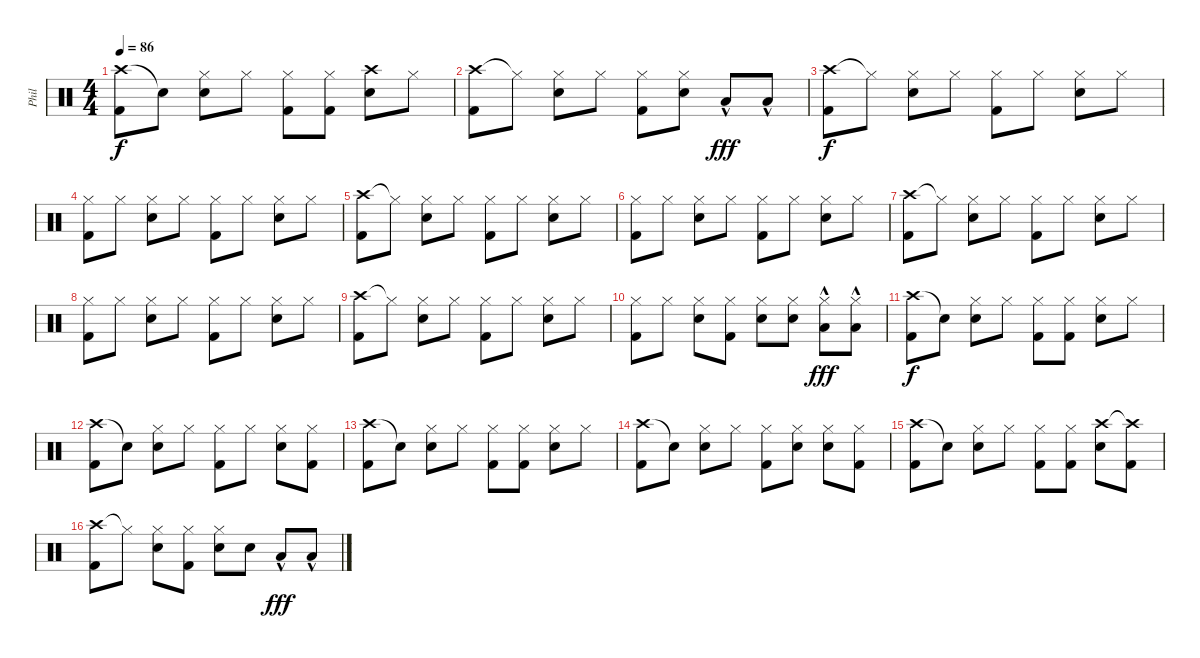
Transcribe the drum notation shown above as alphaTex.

\track ("Phil" "Phil") {instrument percussion}
\staff {score}
\articulation defaults
\ts (4 4)
\tempo 86
\clef neutral
\ks c
("Crash high (hit)" "Kick (hit) 2").8{dy f} "Snare (hit)"{t}.8 ("Hi-Hat (closed)" "Snare (hit) 2").8 "Hi-Hat (closed)".8 ("Hi-Hat (closed)" "Kick (hit) 2").8 ("Hi-Hat (closed)" "Kick (hit) 2").8 ("Crash high (hit)" "Snare (hit) 2").8 "Hi-Hat (closed)".8 |
("Crash high (hit)" "Kick (hit) 2").8 "Hi-Hat (closed)"{t}.8 ("Hi-Hat (closed)" "Snare (hit) 2").8 "Hi-Hat (closed)".8 ("Hi-Hat (closed)" "Kick (hit) 2").8 ("Hi-Hat (closed)" "Snare (hit) 2").8 "Low Floor Tom (hit)"{hac}.8{dy fff} "Low Floor Tom (hit)"{hac}.8 |
("Crash high (hit)" "Kick (hit) 2").8{dy f} "Hi-Hat (closed)"{t}.8 ("Hi-Hat (closed)" "Snare (hit) 2").8 "Hi-Hat (closed)".8 ("Hi-Hat (closed)" "Kick (hit) 2").8 "Hi-Hat (closed)".8 ("Hi-Hat (closed)" "Snare (hit) 2").8 "Hi-Hat (closed)".8 |
("Hi-Hat (closed)" "Kick (hit) 2").8 "Hi-Hat (closed)".8 ("Hi-Hat (closed)" "Snare (hit) 2").8 "Hi-Hat (closed)".8 ("Hi-Hat (closed)" "Kick (hit) 2").8 "Hi-Hat (closed)".8 ("Hi-Hat (closed)" "Snare (hit) 2").8 "Hi-Hat (closed)".8 |
("Crash high (hit)" "Kick (hit) 2").8 "Hi-Hat (closed)"{t}.8 ("Hi-Hat (closed)" "Snare (hit) 2").8 "Hi-Hat (closed)".8 ("Hi-Hat (closed)" "Kick (hit) 2").8 "Hi-Hat (closed)".8 ("Hi-Hat (closed)" "Snare (hit) 2").8 "Hi-Hat (closed)".8 |
("Hi-Hat (closed)" "Kick (hit) 2").8 "Hi-Hat (closed)".8 ("Hi-Hat (closed)" "Snare (hit) 2").8 "Hi-Hat (closed)".8 ("Hi-Hat (closed)" "Kick (hit) 2").8 "Hi-Hat (closed)".8 ("Hi-Hat (closed)" "Snare (hit) 2").8 "Hi-Hat (closed)".8 |
("Crash high (hit)" "Kick (hit) 2").8 "Hi-Hat (closed)"{t}.8 ("Hi-Hat (closed)" "Snare (hit) 2").8 "Hi-Hat (closed)".8 ("Hi-Hat (closed)" "Kick (hit) 2").8 "Hi-Hat (closed)".8 ("Hi-Hat (closed)" "Snare (hit) 2").8 "Hi-Hat (closed)".8 |
("Hi-Hat (closed)" "Kick (hit) 2").8 "Hi-Hat (closed)".8 ("Hi-Hat (closed)" "Snare (hit) 2").8 "Hi-Hat (closed)".8 ("Hi-Hat (closed)" "Kick (hit) 2").8 "Hi-Hat (closed)".8 ("Hi-Hat (closed)" "Snare (hit) 2").8 "Hi-Hat (closed)".8 |
("Crash high (hit)" "Kick (hit) 2").8 "Hi-Hat (closed)"{t}.8 ("Hi-Hat (closed)" "Snare (hit) 2").8 "Hi-Hat (closed)".8 ("Hi-Hat (closed)" "Kick (hit) 2").8 "Hi-Hat (closed)".8 ("Hi-Hat (closed)" "Snare (hit) 2").8 "Hi-Hat (closed)".8 |
("Hi-Hat (closed)" "Kick (hit) 2").8 "Hi-Hat (closed)".8 ("Hi-Hat (closed)" "Snare (hit) 2").8 ("Hi-Hat (closed)" "Kick (hit) 2").8 ("Hi-Hat (closed)" "Snare (hit) 2").8 ("Hi-Hat (closed)" "Snare (hit) 2").8 ("Hi-Hat (closed)" "Low Floor Tom (hit)"{hac}).8{dy fff} ("Hi-Hat (closed)" "Low Floor Tom (hit)"{hac}).8 |
("Crash high (hit)" "Kick (hit) 2").8{dy f} "Snare (hit)"{t}.8 ("Hi-Hat (closed)" "Snare (hit) 2").8 "Hi-Hat (closed)".8 ("Hi-Hat (closed)" "Kick (hit) 2").8 ("Hi-Hat (closed)" "Kick (hit) 2").8 ("Hi-Hat (closed)" "Snare (hit) 2").8 "Hi-Hat (closed)".8 |
("Crash high (hit)" "Kick (hit) 2").8 "Snare (hit)"{t}.8 ("Hi-Hat (closed)" "Snare (hit) 2").8 "Hi-Hat (closed)".8 ("Hi-Hat (closed)" "Kick (hit) 2").8 "Hi-Hat (closed)".8 ("Hi-Hat (closed)" "Snare (hit) 2").8 ("Hi-Hat (closed)" "Kick (hit) 2").8 |
("Crash high (hit)" "Kick (hit) 2").8 "Snare (hit)"{t}.8 ("Hi-Hat (closed)" "Snare (hit) 2").8 "Hi-Hat (closed)".8 ("Hi-Hat (closed)" "Kick (hit) 2").8 ("Hi-Hat (closed)" "Kick (hit) 2").8 ("Hi-Hat (closed)" "Snare (hit) 2").8 "Hi-Hat (closed)".8 |
("Crash high (hit)" "Kick (hit) 2").8 "Snare (hit)"{t}.8 ("Hi-Hat (closed)" "Snare (hit) 2").8 "Hi-Hat (closed)".8 ("Hi-Hat (closed)" "Kick (hit) 2").8 ("Hi-Hat (closed)" "Snare (hit) 2").8 ("Hi-Hat (closed)" "Snare (hit) 2").8 ("Hi-Hat (closed)" "Kick (hit) 2").8 |
("Crash high (hit)" "Kick (hit) 2").8 "Snare (hit)"{t}.8 ("Hi-Hat (closed)" "Snare (hit) 2").8 "Hi-Hat (closed)".8 ("Hi-Hat (closed)" "Kick (hit) 2").8 ("Hi-Hat (closed)" "Kick (hit) 2").8 ("Crash high (hit)" "Snare (hit) 2").8 ("Crash high (hit)"{t} "Kick (hit) 2").8 |
("Crash high (hit)" "Kick (hit) 2").8 "Hi-Hat (closed)"{t}.8 ("Hi-Hat (closed)" "Snare (hit) 2").8 ("Hi-Hat (closed)" "Kick (hit) 2").8 ("Hi-Hat (closed)" "Snare (hit) 2").8 "Snare (hit) 2".8 "Low Floor Tom (hit)"{hac}.8{dy fff} "Low Floor Tom (hit)"{hac}.8
